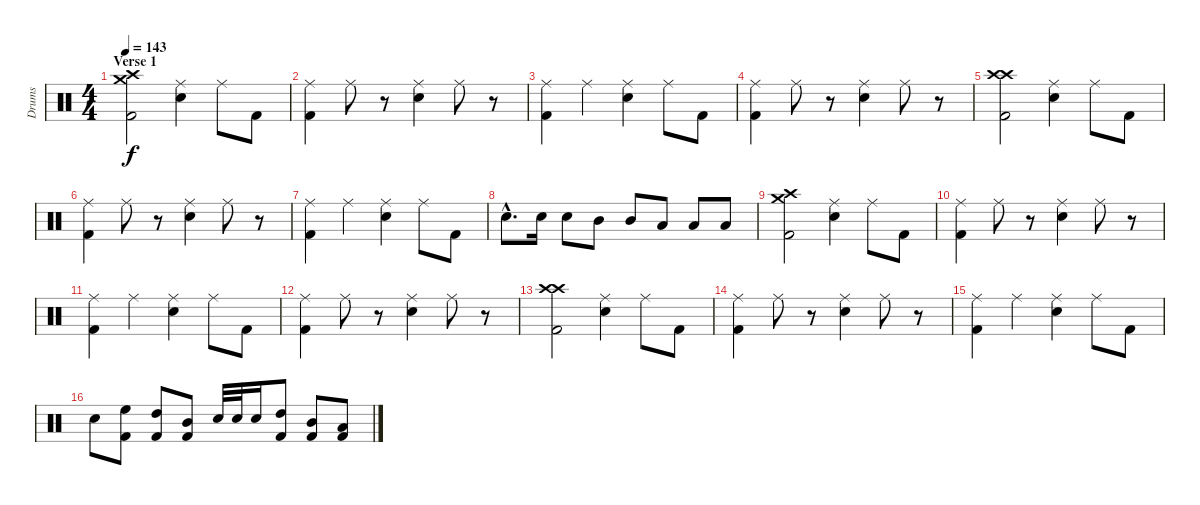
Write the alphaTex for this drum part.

\track ("Drums" "Drums") {instrument percussion}
\staff {score}
\articulation defaults
\ts (4 4)
\section ("" "Verse 1")
\tempo 143
\clef neutral
\ks c
("Crash medium (hit)" "Crash high (hit)" "Kick (hit) 2").2{dy f} ("Ride (middle)" "Electric Snare (hit)").4 "Ride (middle)".8 "Kick (hit) 2".8 |
("Ride (middle)" "Kick (hit) 2").4 "Ride (middle)".8 r.8 ("Ride (middle)" "Electric Snare (hit)").4 "Ride (middle)".8 r.8 |
("Ride (middle)" "Kick (hit) 2").4 "Ride (middle)".4 ("Ride (middle)" "Electric Snare (hit)").4 "Ride (middle)".8 "Kick (hit) 2".8 |
("Ride (middle)" "Kick (hit) 2").4 "Ride (middle)".8 r.8 ("Ride (middle)" "Electric Snare (hit)").4 "Ride (middle)".8 r.8 |
("Crash high (hit)" "Crash high (hit)" "Kick (hit) 2").2 ("Ride (middle)" "Electric Snare (hit)").4 "Ride (middle)".8 "Kick (hit) 2".8 |
("Ride (middle)" "Kick (hit) 2").4 "Ride (middle)".8 r.8 ("Ride (middle)" "Electric Snare (hit)").4 "Ride (middle)".8 r.8 |
("Ride (middle)" "Kick (hit) 2").4 "Ride (middle)".4 ("Ride (middle)" "Electric Snare (hit)").4 "Ride (middle)".8 "Kick (hit) 2".8 |
"Snare (hit) 2"{hac}.8{d} "Snare (hit) 2".16 "Snare (hit) 2".8 "Mid Tom (hit)".8 "Mid Tom (hit)".8 "Low Tom (hit)".8 "Low Tom (hit)".8 "Low Tom (hit)".8 |
("Crash medium (hit)" "Crash high (hit)" "Kick (hit) 2").2 ("Ride (middle)" "Electric Snare (hit)").4 "Ride (middle)".8 "Kick (hit) 2".8 |
("Ride (middle)" "Kick (hit) 2").4 "Ride (middle)".8 r.8 ("Ride (middle)" "Electric Snare (hit)").4 "Ride (middle)".8 r.8 |
("Ride (middle)" "Kick (hit) 2").4 "Ride (middle)".4 ("Ride (middle)" "Electric Snare (hit)").4 "Ride (middle)".8 "Kick (hit) 2".8 |
("Ride (middle)" "Kick (hit) 2").4 "Ride (middle)".8 r.8 ("Ride (middle)" "Electric Snare (hit)").4 "Ride (middle)".8 r.8 |
("Crash high (hit)" "Crash high (hit)" "Kick (hit) 2").2 ("Ride (middle)" "Electric Snare (hit)").4 "Ride (middle)".8 "Kick (hit) 2".8 |
("Ride (middle)" "Kick (hit) 2").4 "Ride (middle)".8 r.8 ("Ride (middle)" "Electric Snare (hit)").4 "Ride (middle)".8 r.8 |
("Ride (middle)" "Kick (hit) 2").4 "Ride (middle)".4 ("Ride (middle)" "Electric Snare (hit)").4 "Ride (middle)".8 "Kick (hit) 2".8 |
"Electric Snare (hit)".8 ("High Floor Tom (hit)" "Kick (hit) 2").8 ("High Tom (hit)" "Kick (hit) 2").8 ("Mid Tom (hit)" "Kick (hit) 2").8 "Electric Snare (hit)".32 "Electric Snare (hit)".32 "Electric Snare (hit)".16 ("High Tom (hit)" "Kick (hit) 2").8 ("Mid Tom (hit)" "Kick (hit) 2").8 ("Low Tom (hit)" "Kick (hit) 2").8
